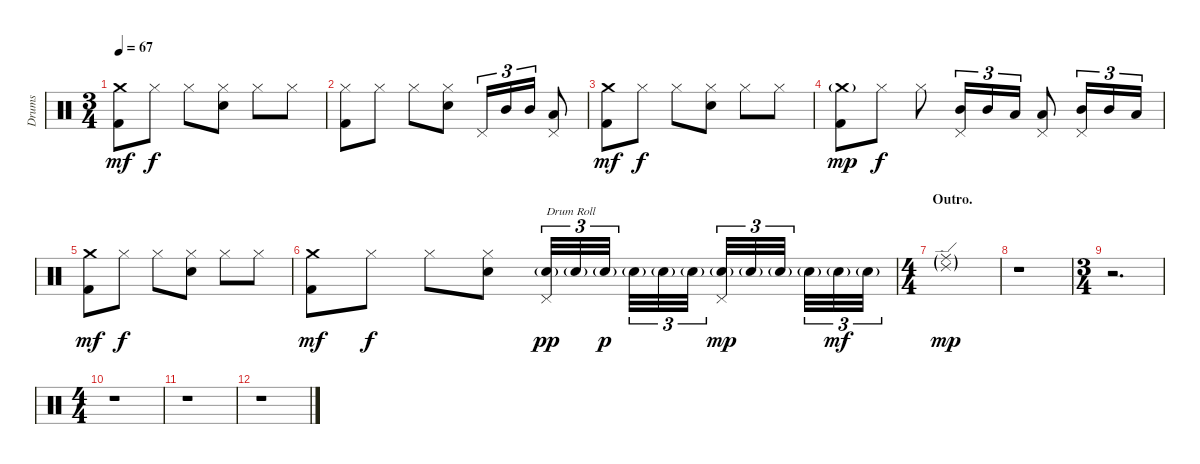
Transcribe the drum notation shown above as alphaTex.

\track ("Drums" "Drums") {instrument percussion}
\staff {score}
\articulation defaults
\ts (3 4)
\tempo 67
\clef neutral
\ks c
("Crash medium (hit)" "Kick (hit) 2").8{dy mf} "Hi-Hat (closed)".8{dy f} "Hi-Hat (closed)".8 ("Hi-Hat (closed)" "Snare (hit) 2").8 "Hi-Hat (closed)".8 "Hi-Hat (closed)".8 |
("Hi-Hat (closed)" "Kick (hit) 2").8 "Hi-Hat (closed)".8 "Hi-Hat (closed)".8 ("Hi-Hat (closed)" "Snare (hit) 2").8 "Pedal Hi-Hat (hit)".16{tu (3 2)} "Mid Tom (hit)".16{tu (3 2)} "Mid Tom (hit)".16{tu (3 2)} ("Pedal Hi-Hat (hit)" "Low Tom (hit)").8 |
("Crash medium (hit)" "Kick (hit) 2").8{dy mf} "Hi-Hat (closed)".8{dy f} "Hi-Hat (closed)".8 ("Hi-Hat (closed)" "Snare (hit) 2").8 "Hi-Hat (closed)".8 "Hi-Hat (closed)".8 |
("Crash medium (hit)"{g} "Kick (hit) 2").8{dy mp} "Hi-Hat (closed)".8{dy f} "Hi-Hat (closed)".8 ("Pedal Hi-Hat (hit)" "Mid Tom (hit)").16{tu (3 2)} "Mid Tom (hit)".16{tu (3 2)} "Low Tom (hit)".16{tu (3 2)} ("Pedal Hi-Hat (hit)" "Low Tom (hit)").8 ("Pedal Hi-Hat (hit)" "Mid Tom (hit)").16{tu (3 2)} "Mid Tom (hit)".16{tu (3 2)} "Low Tom (hit)".16{tu (3 2)} |
("Crash medium (hit)" "Kick (hit) 2").8{dy mf} "Hi-Hat (closed)".8{dy f} "Hi-Hat (closed)".8 ("Hi-Hat (closed)" "Snare (hit) 2").8 "Hi-Hat (closed)".8 "Hi-Hat (closed)".8 |
("Crash medium (hit)" "Kick (hit) 2").8{dy mf} "Hi-Hat (closed)".8{dy f} "Hi-Hat (closed)".8 ("Hi-Hat (closed)" "Snare (hit) 2").8 ("Pedal Hi-Hat (hit)" "Electric Snare (hit)"{g}).32{tu (3 2) txt "Drum Roll" dy pp} "Electric Snare (hit)"{g}.32{tu (3 2)} "Electric Snare (hit)"{g}.32{tu (3 2) dy p} "Electric Snare (hit)"{g}.32{tu (3 2)} "Electric Snare (hit)"{g}.32{tu (3 2)} "Electric Snare (hit)"{g}.32{tu (3 2)} ("Pedal Hi-Hat (hit)" "Electric Snare (hit)"{g}).32{tu (3 2) dy mp} "Electric Snare (hit)"{g}.32{tu (3 2)} "Electric Snare (hit)"{g}.32{tu (3 2)} "Electric Snare (hit)"{g}.32{tu (3 2)} "Electric Snare (hit)"{g}.32{tu (3 2) dy mf} "Electric Snare (hit)"{g}.32{tu (3 2)} |
\ts (4 4)
\section ("" "Outro.")
("Ride (edge) 2"{g} "Ride (middle)"{g}).1{dy mp} |
r.1 |
\ts (3 4)
r.2{d} |
\ts (4 4)
r.1 |
r.1 |
r.1
